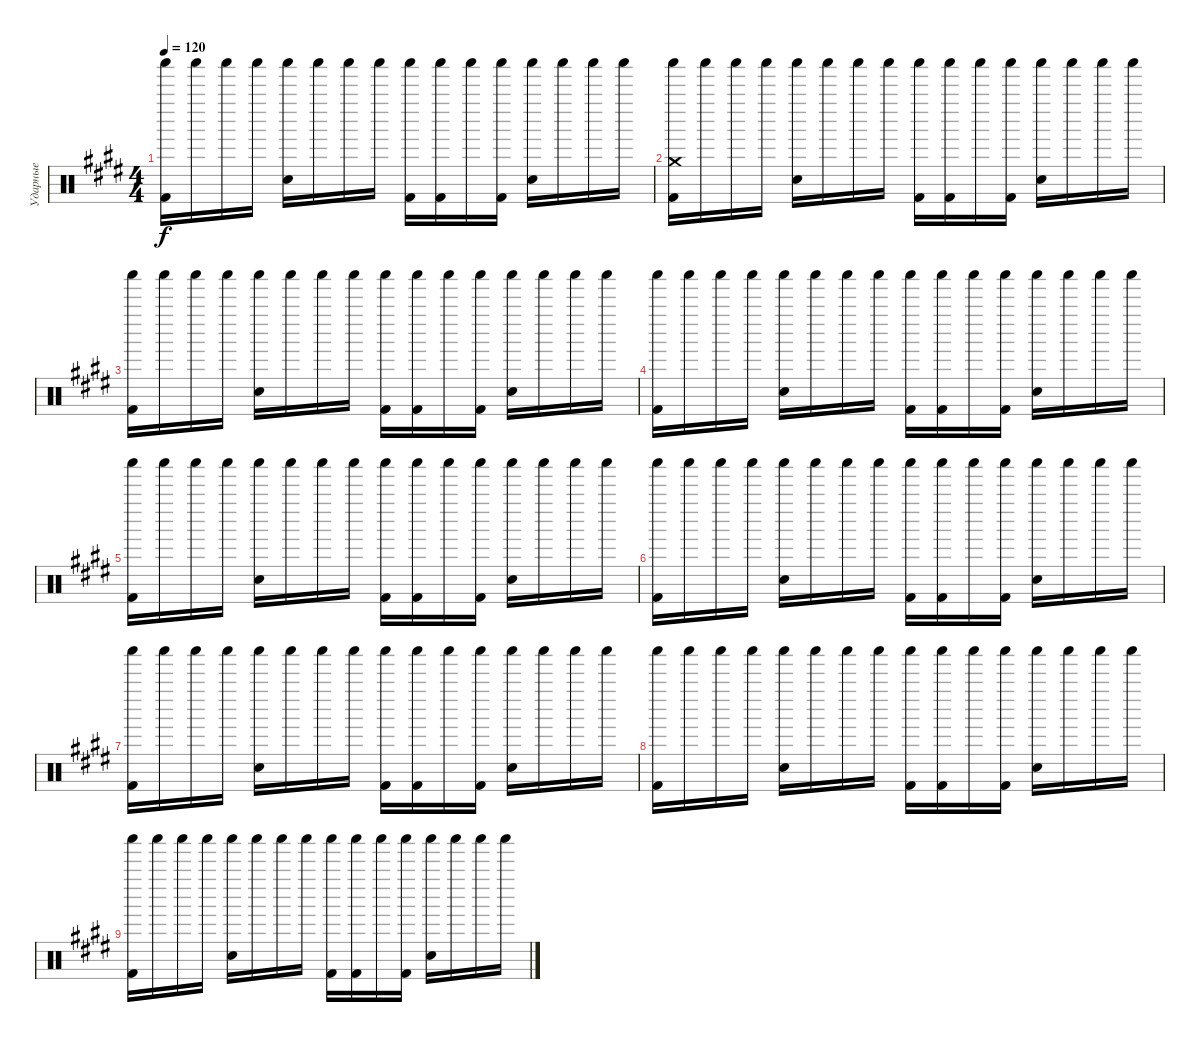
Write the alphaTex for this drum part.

\track ("Ударные" "Ударные") {instrument percussion}
\staff {score}
\articulation defaults
\ts (4 4)
\tempo 120
\clef neutral
\ks e
("Shaker (hit)" "Kick (hit) 2").16{dy f} "Shaker (hit)".16 "Shaker (hit)".16 "Shaker (hit)".16 ("Shaker (hit)" "Snare (hit) 2").16 "Shaker (hit)".16 "Shaker (hit)".16 "Shaker (hit)".16 ("Shaker (hit)" "Kick (hit) 2").16 ("Shaker (hit)" "Kick (hit) 2").16 "Shaker (hit)".16 ("Shaker (hit)" "Kick (hit) 2").16 ("Shaker (hit)" "Snare (hit) 2").16 "Shaker (hit)".16 "Shaker (hit)".16 "Shaker (hit)".16 |
("Crash medium (hit)" "Shaker (hit)" "Kick (hit) 2").16 "Shaker (hit)".16 "Shaker (hit)".16 "Shaker (hit)".16 ("Shaker (hit)" "Snare (hit) 2").16 "Shaker (hit)".16 "Shaker (hit)".16 "Shaker (hit)".16 ("Shaker (hit)" "Kick (hit) 2").16 ("Shaker (hit)" "Kick (hit) 2").16 "Shaker (hit)".16 ("Shaker (hit)" "Kick (hit) 2").16 ("Shaker (hit)" "Snare (hit) 2").16 "Shaker (hit)".16 "Shaker (hit)".16 "Shaker (hit)".16 |
("Shaker (hit)" "Kick (hit) 2").16 "Shaker (hit)".16 "Shaker (hit)".16 "Shaker (hit)".16 ("Shaker (hit)" "Snare (hit) 2").16 "Shaker (hit)".16 "Shaker (hit)".16 "Shaker (hit)".16 ("Shaker (hit)" "Kick (hit) 2").16 ("Shaker (hit)" "Kick (hit) 2").16 "Shaker (hit)".16 ("Shaker (hit)" "Kick (hit) 2").16 ("Shaker (hit)" "Snare (hit) 2").16 "Shaker (hit)".16 "Shaker (hit)".16 "Shaker (hit)".16 |
("Shaker (hit)" "Kick (hit) 2").16 "Shaker (hit)".16 "Shaker (hit)".16 "Shaker (hit)".16 ("Shaker (hit)" "Snare (hit) 2").16 "Shaker (hit)".16 "Shaker (hit)".16 "Shaker (hit)".16 ("Shaker (hit)" "Kick (hit) 2").16 ("Shaker (hit)" "Kick (hit) 2").16 "Shaker (hit)".16 ("Shaker (hit)" "Kick (hit) 2").16 ("Shaker (hit)" "Snare (hit) 2").16 "Shaker (hit)".16 "Shaker (hit)".16 "Shaker (hit)".16 |
("Shaker (hit)" "Kick (hit) 2").16 "Shaker (hit)".16 "Shaker (hit)".16 "Shaker (hit)".16 ("Shaker (hit)" "Snare (hit) 2").16 "Shaker (hit)".16 "Shaker (hit)".16 "Shaker (hit)".16 ("Shaker (hit)" "Kick (hit) 2").16 ("Shaker (hit)" "Kick (hit) 2").16 "Shaker (hit)".16 ("Shaker (hit)" "Kick (hit) 2").16 ("Shaker (hit)" "Snare (hit) 2").16 "Shaker (hit)".16 "Shaker (hit)".16 "Shaker (hit)".16 |
("Shaker (hit)" "Kick (hit) 2").16 "Shaker (hit)".16 "Shaker (hit)".16 "Shaker (hit)".16 ("Shaker (hit)" "Snare (hit) 2").16 "Shaker (hit)".16 "Shaker (hit)".16 "Shaker (hit)".16 ("Shaker (hit)" "Kick (hit) 2").16 ("Shaker (hit)" "Kick (hit) 2").16 "Shaker (hit)".16 ("Shaker (hit)" "Kick (hit) 2").16 ("Shaker (hit)" "Snare (hit) 2").16 "Shaker (hit)".16 "Shaker (hit)".16 "Shaker (hit)".16 |
("Shaker (hit)" "Kick (hit) 2").16 "Shaker (hit)".16 "Shaker (hit)".16 "Shaker (hit)".16 ("Shaker (hit)" "Snare (hit) 2").16 "Shaker (hit)".16 "Shaker (hit)".16 "Shaker (hit)".16 ("Shaker (hit)" "Kick (hit) 2").16 ("Shaker (hit)" "Kick (hit) 2").16 "Shaker (hit)".16 ("Shaker (hit)" "Kick (hit) 2").16 ("Shaker (hit)" "Snare (hit) 2").16 "Shaker (hit)".16 "Shaker (hit)".16 "Shaker (hit)".16 |
("Shaker (hit)" "Kick (hit) 2").16 "Shaker (hit)".16 "Shaker (hit)".16 "Shaker (hit)".16 ("Shaker (hit)" "Snare (hit) 2").16 "Shaker (hit)".16 "Shaker (hit)".16 "Shaker (hit)".16 ("Shaker (hit)" "Kick (hit) 2").16 ("Shaker (hit)" "Kick (hit) 2").16 "Shaker (hit)".16 ("Shaker (hit)" "Kick (hit) 2").16 ("Shaker (hit)" "Snare (hit) 2").16 "Shaker (hit)".16 "Shaker (hit)".16 "Shaker (hit)".16 |
("Shaker (hit)" "Kick (hit) 2").16 "Shaker (hit)".16 "Shaker (hit)".16 "Shaker (hit)".16 ("Shaker (hit)" "Snare (hit) 2").16 "Shaker (hit)".16 "Shaker (hit)".16 "Shaker (hit)".16 ("Shaker (hit)" "Kick (hit) 2").16 ("Shaker (hit)" "Kick (hit) 2").16 "Shaker (hit)".16 ("Shaker (hit)" "Kick (hit) 2").16 ("Shaker (hit)" "Snare (hit) 2").16 "Shaker (hit)".16 "Shaker (hit)".16 "Shaker (hit)".16
